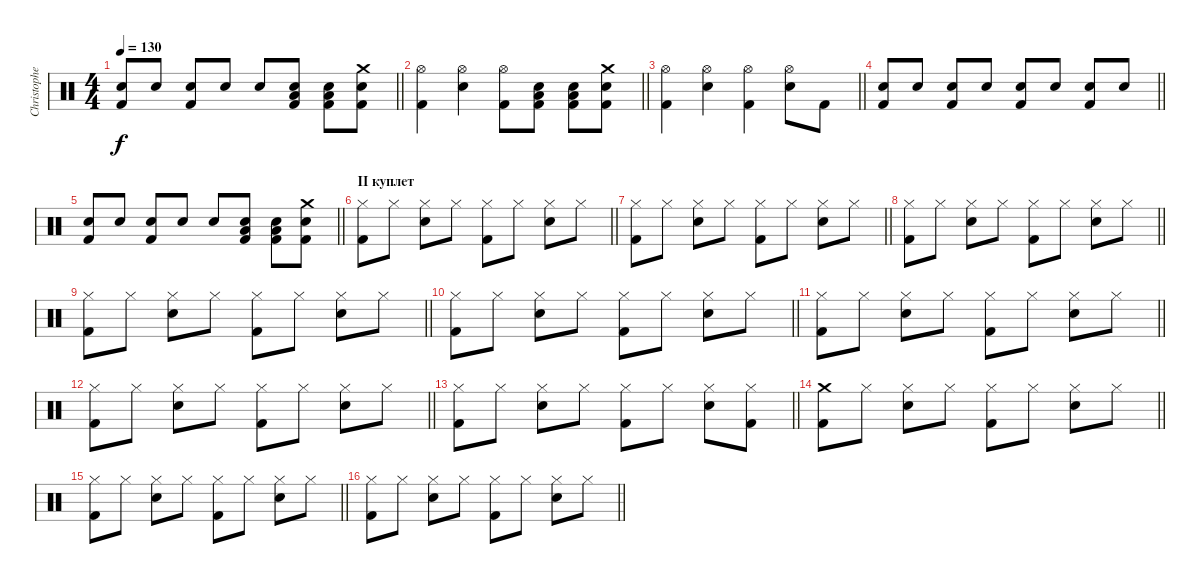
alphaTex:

\track ("Christopher Schneider" "Christophe") {instrument percussion}
\staff {score}
\articulation defaults
\ts (4 4)
\tempo 130
\clef neutral
\barLineRight lightlight
\ks c
("Kick (hit) 2" "Electric Snare (hit)").8{dy f} "Electric Snare (hit)".8 ("Kick (hit) 2" "Electric Snare (hit)").8 "Electric Snare (hit)".8 "Electric Snare (hit)".8 ("Low Tom (hit)" "Electric Snare (hit)" "Kick (hit) 2").8 ("Low Tom (hit)" "Electric Snare (hit)" "Kick (hit) 2").8 ("Crash medium (hit)" "Electric Snare (hit)" "Kick (hit) 2").8 |
\barLineRight lightlight
("Hi-Hat (open)" "Kick (hit) 2").4 ("Hi-Hat (open)" "Electric Snare (hit)").4 ("Hi-Hat (open)" "Kick (hit) 2").8 ("Low Tom (hit)" "Electric Snare (hit)" "Kick (hit) 2").8 ("Low Tom (hit)" "Electric Snare (hit)" "Kick (hit) 2").8 ("Crash medium (hit)" "Electric Snare (hit)" "Kick (hit) 2").8 |
\barLineRight lightlight
("Hi-Hat (open)" "Kick (hit) 2").4 ("Hi-Hat (open)" "Electric Snare (hit)").4 ("Hi-Hat (open)" "Kick (hit) 2").4 ("Hi-Hat (open)" "Electric Snare (hit)").8 "Kick (hit) 2".8 |
\barLineRight lightlight
("Kick (hit) 2" "Electric Snare (hit)").8 "Electric Snare (hit)".8 ("Kick (hit) 2" "Electric Snare (hit)").8 "Electric Snare (hit)".8 ("Kick (hit) 2" "Electric Snare (hit)").8 "Electric Snare (hit)".8 ("Kick (hit) 2" "Electric Snare (hit)").8 "Electric Snare (hit)".8 |
\barLineRight lightlight
("Kick (hit) 2" "Electric Snare (hit)").8 "Electric Snare (hit)".8 ("Kick (hit) 2" "Electric Snare (hit)").8 "Electric Snare (hit)".8 "Electric Snare (hit)".8 ("Low Tom (hit)" "Electric Snare (hit)" "Kick (hit) 2").8 ("Low Tom (hit)" "Electric Snare (hit)" "Kick (hit) 2").8 ("Crash medium (hit)" "Electric Snare (hit)" "Kick (hit) 2").8 |
\section ("" "II куплет")
\barLineRight lightlight
("Hi-Hat (closed)" "Kick (hit) 2").8 "Hi-Hat (closed)".8 ("Hi-Hat (closed)" "Electric Snare (hit)").8 "Hi-Hat (closed)".8 ("Hi-Hat (closed)" "Kick (hit) 2").8 "Hi-Hat (closed)".8 ("Hi-Hat (closed)" "Electric Snare (hit)").8 "Hi-Hat (closed)".8 |
\barLineRight lightlight
("Hi-Hat (closed)" "Kick (hit) 2").8 "Hi-Hat (closed)".8 ("Hi-Hat (closed)" "Electric Snare (hit)").8 "Hi-Hat (closed)".8 ("Hi-Hat (closed)" "Kick (hit) 2").8 "Hi-Hat (closed)".8 ("Hi-Hat (closed)" "Electric Snare (hit)").8 "Hi-Hat (closed)".8 |
\barLineRight lightlight
("Hi-Hat (closed)" "Kick (hit) 2").8 "Hi-Hat (closed)".8 ("Hi-Hat (closed)" "Electric Snare (hit)").8 "Hi-Hat (closed)".8 ("Hi-Hat (closed)" "Kick (hit) 2").8 "Hi-Hat (closed)".8 ("Hi-Hat (closed)" "Electric Snare (hit)").8 "Hi-Hat (closed)".8 |
\barLineRight lightlight
("Hi-Hat (closed)" "Kick (hit) 2").8 "Hi-Hat (closed)".8 ("Hi-Hat (closed)" "Electric Snare (hit)").8 "Hi-Hat (closed)".8 ("Hi-Hat (closed)" "Kick (hit) 2").8 "Hi-Hat (closed)".8 ("Hi-Hat (closed)" "Electric Snare (hit)").8 "Hi-Hat (closed)".8 |
\barLineRight lightlight
("Hi-Hat (closed)" "Kick (hit) 2").8 "Hi-Hat (closed)".8 ("Hi-Hat (closed)" "Electric Snare (hit)").8 "Hi-Hat (closed)".8 ("Hi-Hat (closed)" "Kick (hit) 2").8 "Hi-Hat (closed)".8 ("Hi-Hat (closed)" "Electric Snare (hit)").8 "Hi-Hat (closed)".8 |
\barLineRight lightlight
("Hi-Hat (closed)" "Kick (hit) 2").8 "Hi-Hat (closed)".8 ("Hi-Hat (closed)" "Electric Snare (hit)").8 "Hi-Hat (closed)".8 ("Hi-Hat (closed)" "Kick (hit) 2").8 "Hi-Hat (closed)".8 ("Hi-Hat (closed)" "Electric Snare (hit)").8 "Hi-Hat (closed)".8 |
\barLineRight lightlight
("Hi-Hat (closed)" "Kick (hit) 2").8 "Hi-Hat (closed)".8 ("Hi-Hat (closed)" "Electric Snare (hit)").8 "Hi-Hat (closed)".8 ("Hi-Hat (closed)" "Kick (hit) 2").8 "Hi-Hat (closed)".8 ("Hi-Hat (closed)" "Electric Snare (hit)").8 "Hi-Hat (closed)".8 |
\barLineRight lightlight
("Hi-Hat (closed)" "Kick (hit) 2").8 "Hi-Hat (closed)".8 ("Hi-Hat (closed)" "Electric Snare (hit)").8 "Hi-Hat (closed)".8 ("Hi-Hat (closed)" "Kick (hit) 2").8 "Hi-Hat (closed)".8 ("Hi-Hat (closed)" "Electric Snare (hit)").8 ("Hi-Hat (closed)" "Kick (hit) 2").8 |
\barLineRight lightlight
("Crash medium (hit)" "Kick (hit) 2").8 "Hi-Hat (closed)".8 ("Hi-Hat (closed)" "Electric Snare (hit)").8 "Hi-Hat (closed)".8 ("Hi-Hat (closed)" "Kick (hit) 2").8 "Hi-Hat (closed)".8 ("Hi-Hat (closed)" "Electric Snare (hit)").8 "Hi-Hat (closed)".8 |
\barLineRight lightlight
("Hi-Hat (closed)" "Kick (hit) 2").8 "Hi-Hat (closed)".8 ("Hi-Hat (closed)" "Electric Snare (hit)").8 "Hi-Hat (closed)".8 ("Hi-Hat (closed)" "Kick (hit) 2").8 "Hi-Hat (closed)".8 ("Hi-Hat (closed)" "Electric Snare (hit)").8 "Hi-Hat (closed)".8 |
\barLineRight lightlight
("Hi-Hat (closed)" "Kick (hit) 2").8 "Hi-Hat (closed)".8 ("Hi-Hat (closed)" "Electric Snare (hit)").8 "Hi-Hat (closed)".8 ("Hi-Hat (closed)" "Kick (hit) 2").8 "Hi-Hat (closed)".8 ("Hi-Hat (closed)" "Electric Snare (hit)").8 "Hi-Hat (closed)".8
